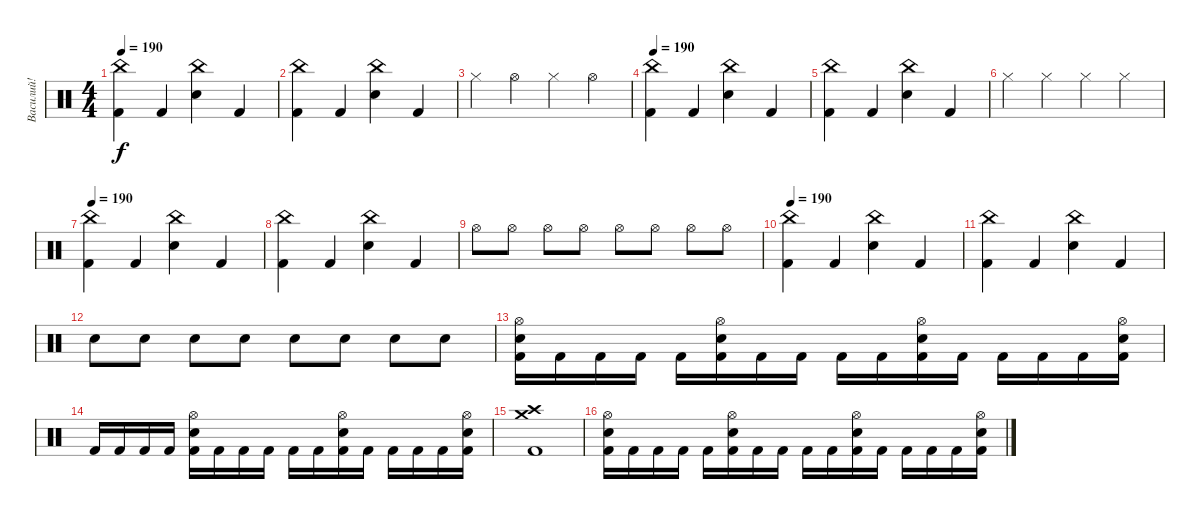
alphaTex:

\track ("Василий!" "Василий!") {instrument percussion}
\staff {score}
\articulation defaults
\ts (4 4)
\tempo 190
\clef neutral
\ks c
("China (hit)" "Kick (hit) 2").4{dy f} "Kick (hit) 2".4 ("China (hit)" "Electric Snare (hit)").4 "Kick (hit) 2".4 |
("China (hit)" "Kick (hit) 2").4 "Kick (hit) 2".4 ("China (hit)" "Electric Snare (hit)").4 "Kick (hit) 2".4 |
"Hi-Hat (closed)".4 "Hi-Hat (open)".4 "Hi-Hat (closed)".4 "Hi-Hat (open)".4 |
\tempo 190
("China (hit)" "Kick (hit) 2").4 "Kick (hit) 2".4 ("China (hit)" "Electric Snare (hit)").4 "Kick (hit) 2".4 |
("China (hit)" "Kick (hit) 2").4 "Kick (hit) 2".4 ("China (hit)" "Electric Snare (hit)").4 "Kick (hit) 2".4 |
"Hi-Hat (closed)".4 "Hi-Hat (closed)".4 "Hi-Hat (closed)".4 "Hi-Hat (closed)".4 |
\tempo 190
("China (hit)" "Kick (hit) 2").4 "Kick (hit) 2".4 ("China (hit)" "Electric Snare (hit)").4 "Kick (hit) 2".4 |
("China (hit)" "Kick (hit) 2").4 "Kick (hit) 2".4 ("China (hit)" "Electric Snare (hit)").4 "Kick (hit) 2".4 |
"Hi-Hat (open)".8 "Hi-Hat (open)".8 "Hi-Hat (open)".8 "Hi-Hat (open)".8 "Hi-Hat (open)".8 "Hi-Hat (open)".8 "Hi-Hat (open)".8 "Hi-Hat (open)".8 |
\tempo 190
("China (hit)" "Kick (hit) 2").4 "Kick (hit) 2".4 ("China (hit)" "Electric Snare (hit)").4 "Kick (hit) 2".4 |
("China (hit)" "Kick (hit) 2").4 "Kick (hit) 2".4 ("China (hit)" "Electric Snare (hit)").4 "Kick (hit) 2".4 |
"Electric Snare (hit)".8 "Electric Snare (hit)".8 "Electric Snare (hit)".8 "Electric Snare (hit)".8 "Electric Snare (hit)".8 "Electric Snare (hit)".8 "Electric Snare (hit)".8 "Electric Snare (hit)".8 |
("Kick (hit) 2" "Electric Snare (hit)" "Hi-Hat (open)").16 "Kick (hit) 2".16 "Kick (hit) 2".16 "Kick (hit) 2".16 "Kick (hit) 2".16 ("Kick (hit) 2" "Electric Snare (hit)" "Hi-Hat (open)").16 "Kick (hit) 2".16 "Kick (hit) 2".16 "Kick (hit) 2".16 "Kick (hit) 2".16 ("Kick (hit) 2" "Electric Snare (hit)" "Hi-Hat (open)").16 "Kick (hit) 2".16 "Kick (hit) 2".16 "Kick (hit) 2".16 "Kick (hit) 2".16 ("Kick (hit) 2" "Electric Snare (hit)" "Hi-Hat (open)").16 |
"Kick (hit) 2".16 "Kick (hit) 2".16 "Kick (hit) 2".16 "Kick (hit) 2".16 ("Kick (hit) 2" "Electric Snare (hit)" "Hi-Hat (open)").16 "Kick (hit) 2".16 "Kick (hit) 2".16 "Kick (hit) 2".16 "Kick (hit) 2".16 "Kick (hit) 2".16 ("Kick (hit) 2" "Electric Snare (hit)" "Hi-Hat (open)").16 "Kick (hit) 2".16 "Kick (hit) 2".16 "Kick (hit) 2".16 "Kick (hit) 2".16 ("Kick (hit) 2" "Electric Snare (hit)" "Hi-Hat (open)").16 |
("Kick (hit) 2" "Crash high (hit)" "Crash medium (hit)").1 |
("Kick (hit) 2" "Electric Snare (hit)" "Hi-Hat (open)").16 "Kick (hit) 2".16 "Kick (hit) 2".16 "Kick (hit) 2".16 "Kick (hit) 2".16 ("Kick (hit) 2" "Electric Snare (hit)" "Hi-Hat (open)").16 "Kick (hit) 2".16 "Kick (hit) 2".16 "Kick (hit) 2".16 "Kick (hit) 2".16 ("Kick (hit) 2" "Electric Snare (hit)" "Hi-Hat (open)").16 "Kick (hit) 2".16 "Kick (hit) 2".16 "Kick (hit) 2".16 "Kick (hit) 2".16 ("Kick (hit) 2" "Electric Snare (hit)" "Hi-Hat (open)").16
